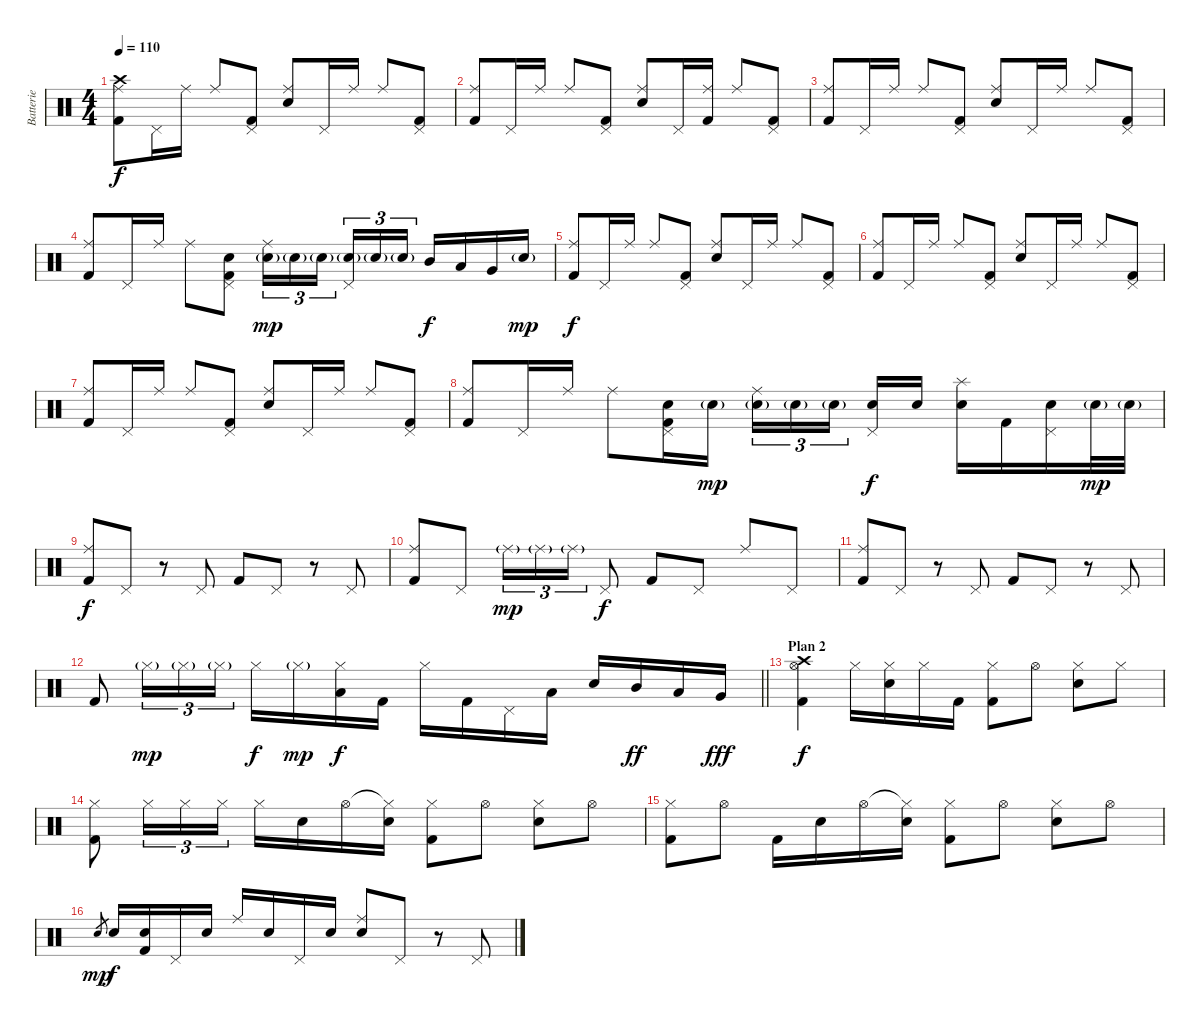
\track ("Batterie" "Batterie") {instrument percussion}
\staff {score}
\articulation defaults
\ts (4 4)
\tempo 110
\clef neutral
\ks c
("Crash high (hit)" "Ride (middle)" "Kick (hit) 2").8{dy f} "Pedal Hi-Hat (hit)".16 "Ride (middle)".16 "Ride (middle)".8 ("Pedal Hi-Hat (hit)" "Kick (hit) 2").8 ("Ride (middle)" "Snare (hit) 2").8 "Pedal Hi-Hat (hit)".16 "Ride (middle)".16 "Ride (middle)".8 ("Pedal Hi-Hat (hit)" "Kick (hit) 2").8 |
("Ride (middle)" "Kick (hit) 2").8 "Pedal Hi-Hat (hit)".16 "Ride (middle)".16 "Ride (middle)".8 ("Pedal Hi-Hat (hit)" "Kick (hit) 2").8 ("Ride (middle)" "Snare (hit) 2").8 "Pedal Hi-Hat (hit)".16 ("Ride (middle)" "Kick (hit) 2").16 "Ride (middle)".8 ("Pedal Hi-Hat (hit)" "Kick (hit) 2").8 |
("Ride (middle)" "Kick (hit) 2").8 "Pedal Hi-Hat (hit)".16 "Ride (middle)".16 "Ride (middle)".8 ("Pedal Hi-Hat (hit)" "Kick (hit) 2").8 ("Ride (middle)" "Snare (hit) 2").8 "Pedal Hi-Hat (hit)".16 "Ride (middle)".16 "Ride (middle)".8 ("Pedal Hi-Hat (hit)" "Kick (hit) 2").8 |
("Ride (middle)" "Kick (hit) 2").8 "Pedal Hi-Hat (hit)".16 "Ride (middle)".16 "Ride (middle)".8 ("Pedal Hi-Hat (hit)" "Snare (hit) 2" "Kick (hit) 2").8 ("Ride (middle)" "Snare (hit) 2"{g}).16{tu (3 2) dy mp} "Snare (hit) 2"{g}.16{tu (3 2)} "Snare (hit) 2"{g}.16{tu (3 2) beam splitsecondary} ("Pedal Hi-Hat (hit)" "Snare (hit) 2"{g}).16{tu (3 2)} "Snare (hit) 2"{g}.16{tu (3 2)} "Snare (hit) 2"{g}.16{tu (3 2)} "Mid Tom (hit)".16{dy f} "Low Tom (hit)".16 "Very Low Tom (hit)".16 "Snare (hit) 2"{g}.16{dy mp} |
("Ride (middle)" "Kick (hit) 2").8{dy f} "Pedal Hi-Hat (hit)".16 "Ride (middle)".16 "Ride (middle)".8 ("Pedal Hi-Hat (hit)" "Kick (hit) 2").8 ("Ride (middle)" "Snare (hit) 2").8 "Pedal Hi-Hat (hit)".16 "Ride (middle)".16 "Ride (middle)".8 ("Pedal Hi-Hat (hit)" "Kick (hit) 2").8 |
("Ride (middle)" "Kick (hit) 2").8 "Pedal Hi-Hat (hit)".16 "Ride (middle)".16 "Ride (middle)".8 ("Pedal Hi-Hat (hit)" "Kick (hit) 2").8 ("Ride (middle)" "Snare (hit) 2").8 "Pedal Hi-Hat (hit)".16 "Ride (middle)".16 "Ride (middle)".8 ("Pedal Hi-Hat (hit)" "Kick (hit) 2").8 |
("Ride (middle)" "Kick (hit) 2").8 "Pedal Hi-Hat (hit)".16 "Ride (middle)".16 "Ride (middle)".8 ("Pedal Hi-Hat (hit)" "Kick (hit) 2").8 ("Ride (middle)" "Snare (hit) 2").8 "Pedal Hi-Hat (hit)".16 "Ride (middle)".16 "Ride (middle)".8 ("Pedal Hi-Hat (hit)" "Kick (hit) 2").8 |
("Ride (middle)" "Kick (hit) 2").8 "Pedal Hi-Hat (hit)".16 "Ride (middle)".16 "Ride (middle)".8 ("Pedal Hi-Hat (hit)" "Snare (hit) 2" "Kick (hit) 2").16 "Snare (hit) 2"{g}.16{dy mp} ("Ride (middle)" "Snare (hit) 2"{g}).16{tu (3 2)} "Snare (hit) 2"{g}.16{tu (3 2)} "Snare (hit) 2"{g}.16{tu (3 2) beam splitsecondary} ("Pedal Hi-Hat (hit)" "Snare (hit) 2").16{dy f} "Snare (hit) 2".16 ("Splash (hit)" "Snare (hit) 2").16 "Kick (hit) 2".16 ("Pedal Hi-Hat (hit)" "Snare (hit) 2").16 "Snare (hit) 2"{g}.32{dy mp} "Snare (hit) 2"{g}.32 |
("Ride (middle)" "Kick (hit) 2").8{dy f} "Pedal Hi-Hat (hit)".8 r.8 "Pedal Hi-Hat (hit)".8 "Kick (hit) 2".8 "Pedal Hi-Hat (hit)".8 r.8 "Pedal Hi-Hat (hit)".8 |
("Ride (middle)" "Kick (hit) 2").8 "Pedal Hi-Hat (hit)".8 "Ride (middle)"{g}.16{tu (3 2) dy mp} "Ride (middle)"{g}.16{tu (3 2)} "Ride (middle)"{g}.16{tu (3 2)} "Pedal Hi-Hat (hit)".8{dy f} "Kick (hit) 2".8 "Pedal Hi-Hat (hit)".8 "Ride (middle)".8 "Pedal Hi-Hat (hit)".8 |
("Ride (middle)" "Kick (hit) 2").8 "Pedal Hi-Hat (hit)".8 r.8 "Pedal Hi-Hat (hit)".8 "Kick (hit) 2".8 "Pedal Hi-Hat (hit)".8 r.8 "Pedal Hi-Hat (hit)".8 |
\barLineRight lightlight "Kick (hit) 2".8 "Hi-Hat (closed)"{g}.16{tu (3 2) dy mp} "Hi-Hat (closed)"{g}.16{tu (3 2)} "Hi-Hat (closed)"{g}.16{tu (3 2)} "Hi-Hat (closed)".16{dy f} "Hi-Hat (closed)"{g}.16{dy mp}
("Hi-Hat (closed)" "Low Tom (hit)").16{dy f} "Kick (hit) 2".16 "Hi-Hat (closed)".16 "Kick (hit) 2".16 "Pedal Hi-Hat (hit)".16 "Low Tom (hit)".16 "Snare (hit) 2".16 "Mid Tom (hit)".16{dy ff} "Low Tom (hit)".16 "Very Low Tom (hit)".16{dy fff} |
\section ("" "Plan 2")
("Crash high (hit)" "Hi-Hat (open)" "Kick (hit) 2").4{dy f} "Hi-Hat (closed)".16 ("Hi-Hat (closed)" "Snare (hit) 2").16 "Hi-Hat (closed)".16 "Kick (hit) 2".16 ("Hi-Hat (closed)" "Kick (hit) 2").8 "Hi-Hat (open)".8 ("Hi-Hat (closed)" "Snare (hit) 2").8 "Hi-Hat (closed)".8 |
("Hi-Hat (closed)" "Kick (hit) 2").8 "Hi-Hat (closed)".16{tu (3 2)} "Hi-Hat (closed)".16{tu (3 2)} "Hi-Hat (closed)".16{tu (3 2)} "Hi-Hat (closed)".16 "Snare (hit) 2".16 "Hi-Hat (open)".16 ("Hi-Hat (closed)"{t} "Snare (hit) 2").16 ("Hi-Hat (closed)" "Kick (hit) 2").8 "Hi-Hat (open)".8 ("Hi-Hat (closed)" "Snare (hit) 2").8 "Hi-Hat (open)".8 |
("Hi-Hat (closed)" "Kick (hit) 2").8 "Hi-Hat (open)".8 "Kick (hit) 2".16 "Snare (hit) 2".16 "Hi-Hat (open)".16 ("Hi-Hat (closed)"{t} "Snare (hit) 2").16 ("Hi-Hat (closed)" "Kick (hit) 2").8 "Hi-Hat (open)".8 ("Hi-Hat (closed)" "Snare (hit) 2").8 "Hi-Hat (open)".8 |
"Snare (hit) 2".8{gr dy mp} "Snare (hit) 2".16{dy f} ("Snare (hit) 2" "Kick (hit) 2").16 "Pedal Hi-Hat (hit)".16 "Snare (hit) 2".16 "Ride (middle)".16 "Snare (hit) 2".16 "Pedal Hi-Hat (hit)".16 "Snare (hit) 2".16 ("Ride (middle)" "Snare (hit) 2").8 "Pedal Hi-Hat (hit)".8 r.8 "Pedal Hi-Hat (hit)".8
